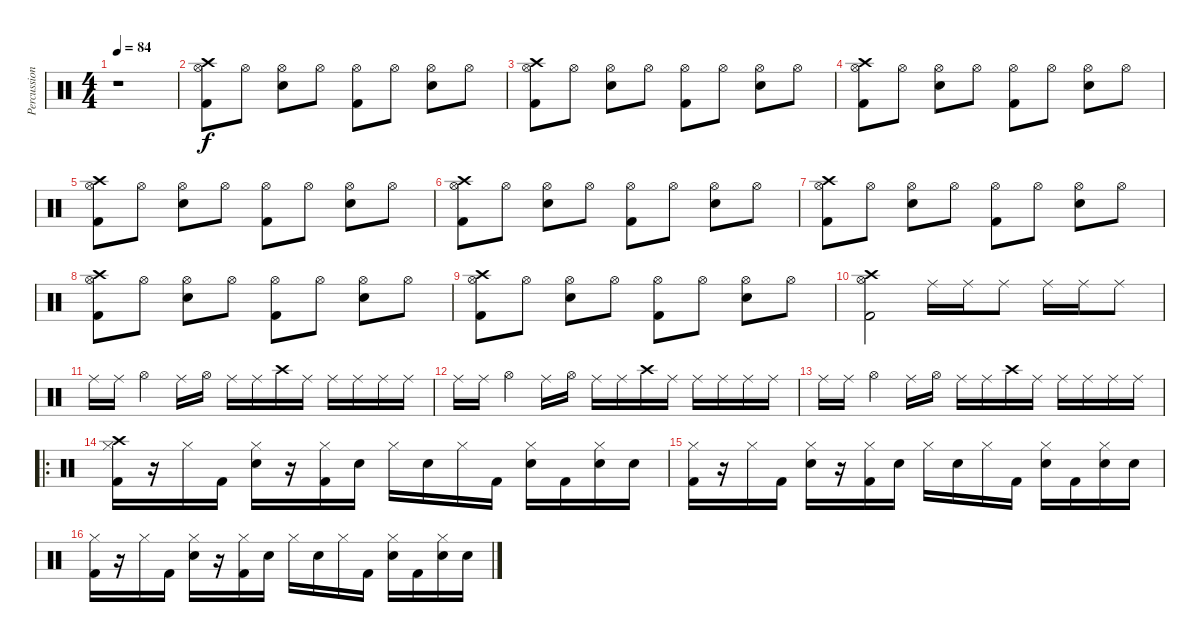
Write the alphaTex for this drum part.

\track ("Percussion" "Percussion") {instrument percussion}
\staff {score}
\articulation defaults
\ts (4 4)
\tempo 84
\clef neutral
\ks c
r.1{dy f} |
("Crash high (hit)" "Hi-Hat (open)" "Kick (hit) 2").8 "Hi-Hat (open)".8 ("Hi-Hat (open)" "Snare (hit) 2").8 "Hi-Hat (open)".8 ("Hi-Hat (open)" "Kick (hit) 2").8 "Hi-Hat (open)".8 ("Hi-Hat (open)" "Snare (hit) 2").8 "Hi-Hat (open)".8 |
("Crash high (hit)" "Hi-Hat (open)" "Kick (hit) 2").8 "Hi-Hat (open)".8 ("Hi-Hat (open)" "Snare (hit) 2").8 "Hi-Hat (open)".8 ("Hi-Hat (open)" "Kick (hit) 2").8 "Hi-Hat (open)".8 ("Hi-Hat (open)" "Snare (hit) 2").8 "Hi-Hat (open)".8 |
("Crash high (hit)" "Hi-Hat (open)" "Kick (hit) 2").8 "Hi-Hat (open)".8 ("Hi-Hat (open)" "Snare (hit) 2").8 "Hi-Hat (open)".8 ("Hi-Hat (open)" "Kick (hit) 2").8 "Hi-Hat (open)".8 ("Hi-Hat (open)" "Snare (hit) 2").8 "Hi-Hat (open)".8 |
("Crash high (hit)" "Hi-Hat (open)" "Kick (hit) 2").8 "Hi-Hat (open)".8 ("Hi-Hat (open)" "Snare (hit) 2").8 "Hi-Hat (open)".8 ("Hi-Hat (open)" "Kick (hit) 2").8 "Hi-Hat (open)".8 ("Hi-Hat (open)" "Snare (hit) 2").8 "Hi-Hat (open)".8 |
("Crash high (hit)" "Hi-Hat (open)" "Kick (hit) 2").8 "Hi-Hat (open)".8 ("Hi-Hat (open)" "Snare (hit) 2").8 "Hi-Hat (open)".8 ("Hi-Hat (open)" "Kick (hit) 2").8 "Hi-Hat (open)".8 ("Hi-Hat (open)" "Snare (hit) 2").8 "Hi-Hat (open)".8 |
("Crash high (hit)" "Hi-Hat (open)" "Kick (hit) 2").8 "Hi-Hat (open)".8 ("Hi-Hat (open)" "Snare (hit) 2").8 "Hi-Hat (open)".8 ("Hi-Hat (open)" "Kick (hit) 2").8 "Hi-Hat (open)".8 ("Hi-Hat (open)" "Snare (hit) 2").8 "Hi-Hat (open)".8 |
("Crash high (hit)" "Hi-Hat (open)" "Kick (hit) 2").8 "Hi-Hat (open)".8 ("Hi-Hat (open)" "Snare (hit) 2").8 "Hi-Hat (open)".8 ("Hi-Hat (open)" "Kick (hit) 2").8 "Hi-Hat (open)".8 ("Hi-Hat (open)" "Snare (hit) 2").8 "Hi-Hat (open)".8 |
("Crash high (hit)" "Hi-Hat (open)" "Kick (hit) 2").8 "Hi-Hat (open)".8 ("Hi-Hat (open)" "Snare (hit) 2").8 "Hi-Hat (open)".8 ("Hi-Hat (open)" "Kick (hit) 2").8 "Hi-Hat (open)".8 ("Hi-Hat (open)" "Snare (hit) 2").8 "Hi-Hat (open)".8 |
("Crash high (hit)" "Hi-Hat (open)" "Kick (hit) 2").2 "Ride (middle)".16 "Ride (middle)".16 "Ride (middle)".8 "Ride (middle)".16 "Ride (middle)".16 "Ride (middle)".8 |
"Ride (middle)".16 "Ride (middle)".16 "Hi-Hat (open)".4 "Ride (middle)".16 "Hi-Hat (open)".16 "Ride (middle)".16 "Ride (middle)".16 "Crash high (hit)".16 "Ride (middle)".16 "Ride (middle)".16 "Ride (middle)".16 "Ride (middle)".16 "Ride (middle)".16 |
"Ride (middle)".16 "Ride (middle)".16 "Hi-Hat (open)".4 "Ride (middle)".16 "Hi-Hat (open)".16 "Ride (middle)".16 "Ride (middle)".16 "Crash high (hit)".16 "Ride (middle)".16 "Ride (middle)".16 "Ride (middle)".16 "Ride (middle)".16 "Ride (middle)".16 |
"Ride (middle)".16 "Ride (middle)".16 "Hi-Hat (open)".4 "Ride (middle)".16 "Hi-Hat (open)".16 "Ride (middle)".16 "Ride (middle)".16 "Crash high (hit)".16 "Ride (middle)".16 "Ride (middle)".16 "Ride (middle)".16 "Ride (middle)".16 "Ride (middle)".16 |
\ro
("Crash high (hit)" "Hi-Hat (closed)" "Kick (hit) 2").16 r.16 "Hi-Hat (closed)".16 "Kick (hit) 2".16 ("Hi-Hat (closed)" "Snare (hit) 2").16 r.16 ("Hi-Hat (closed)" "Kick (hit) 2").16 "Snare (hit) 2".16 "Hi-Hat (closed)".16 "Snare (hit) 2".16 "Hi-Hat (closed)".16 "Kick (hit) 2".16 ("Hi-Hat (closed)" "Snare (hit) 2").16 "Kick (hit) 2".16 ("Hi-Hat (closed)" "Snare (hit) 2").16 "Snare (hit) 2".16 |
("Hi-Hat (closed)" "Kick (hit) 2").16 r.16 "Hi-Hat (closed)".16 "Kick (hit) 2".16 ("Hi-Hat (closed)" "Snare (hit) 2").16 r.16 ("Hi-Hat (closed)" "Kick (hit) 2").16 "Snare (hit) 2".16 "Hi-Hat (closed)".16 "Snare (hit) 2".16 "Hi-Hat (closed)".16 "Kick (hit) 2".16 ("Hi-Hat (closed)" "Snare (hit) 2").16 "Kick (hit) 2".16 ("Hi-Hat (closed)" "Snare (hit) 2").16 "Snare (hit) 2".16 |
("Hi-Hat (closed)" "Kick (hit) 2").16 r.16 "Hi-Hat (closed)".16 "Kick (hit) 2".16 ("Hi-Hat (closed)" "Snare (hit) 2").16 r.16 ("Hi-Hat (closed)" "Kick (hit) 2").16 "Snare (hit) 2".16 "Hi-Hat (closed)".16 "Snare (hit) 2".16 "Hi-Hat (closed)".16 "Kick (hit) 2".16 ("Hi-Hat (closed)" "Snare (hit) 2").16 "Kick (hit) 2".16 ("Hi-Hat (closed)" "Snare (hit) 2").16 "Snare (hit) 2".16
